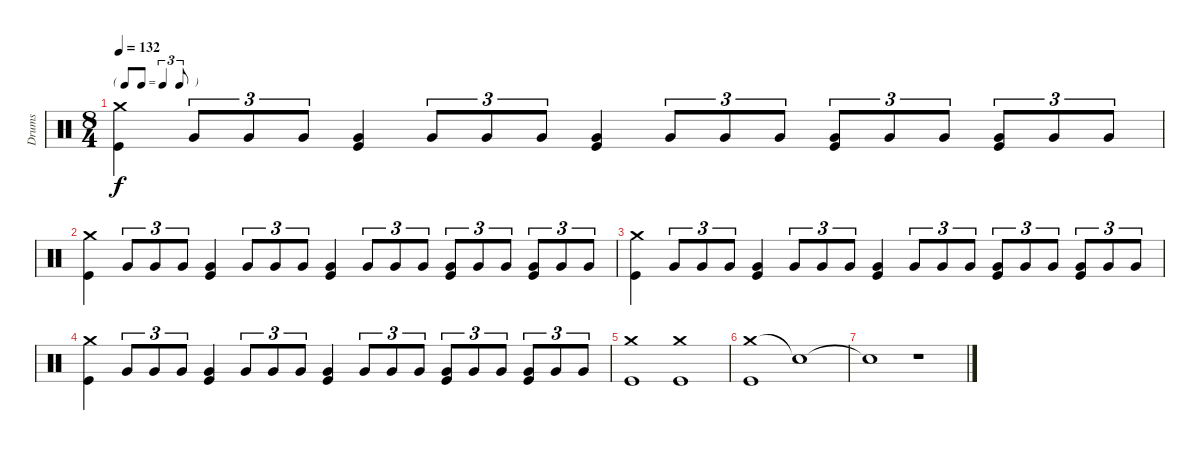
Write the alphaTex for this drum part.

\track ("Drums" "Drums") {instrument percussion}
\staff {score}
\articulation defaults
\ts (8 4)
\tf triplet8th
\tempo 132
\clef neutral
\ks c
("Crash medium (hit)" "Kick (hit)").4{dy f} "Very Low Tom (hit)".8{tu (3 2)} "Very Low Tom (hit)".8{tu (3 2)} "Very Low Tom (hit)".8{tu (3 2)} ("Very Low Tom (hit)" "Kick (hit)").4 "Very Low Tom (hit)".8{tu (3 2)} "Very Low Tom (hit)".8{tu (3 2)} "Very Low Tom (hit)".8{tu (3 2)} ("Very Low Tom (hit)" "Kick (hit)").4 "Very Low Tom (hit)".8{tu (3 2)} "Very Low Tom (hit)".8{tu (3 2)} "Very Low Tom (hit)".8{tu (3 2)} ("Very Low Tom (hit)" "Kick (hit)").8{tu (3 2)} "Very Low Tom (hit)".8{tu (3 2)} "Very Low Tom (hit)".8{tu (3 2)} ("Very Low Tom (hit)" "Kick (hit)").8{tu (3 2)} "Very Low Tom (hit)".8{tu (3 2)} "Very Low Tom (hit)".8{tu (3 2)} |
("Crash medium (hit)" "Kick (hit)").4 "Very Low Tom (hit)".8{tu (3 2)} "Very Low Tom (hit)".8{tu (3 2)} "Very Low Tom (hit)".8{tu (3 2)} ("Very Low Tom (hit)" "Kick (hit)").4 "Very Low Tom (hit)".8{tu (3 2)} "Very Low Tom (hit)".8{tu (3 2)} "Very Low Tom (hit)".8{tu (3 2)} ("Very Low Tom (hit)" "Kick (hit)").4 "Very Low Tom (hit)".8{tu (3 2)} "Very Low Tom (hit)".8{tu (3 2)} "Very Low Tom (hit)".8{tu (3 2)} ("Very Low Tom (hit)" "Kick (hit)").8{tu (3 2)} "Very Low Tom (hit)".8{tu (3 2)} "Very Low Tom (hit)".8{tu (3 2)} ("Very Low Tom (hit)" "Kick (hit)").8{tu (3 2)} "Very Low Tom (hit)".8{tu (3 2)} "Very Low Tom (hit)".8{tu (3 2)} |
("Crash medium (hit)" "Kick (hit)").4 "Very Low Tom (hit)".8{tu (3 2)} "Very Low Tom (hit)".8{tu (3 2)} "Very Low Tom (hit)".8{tu (3 2)} ("Very Low Tom (hit)" "Kick (hit)").4 "Very Low Tom (hit)".8{tu (3 2)} "Very Low Tom (hit)".8{tu (3 2)} "Very Low Tom (hit)".8{tu (3 2)} ("Very Low Tom (hit)" "Kick (hit)").4 "Very Low Tom (hit)".8{tu (3 2)} "Very Low Tom (hit)".8{tu (3 2)} "Very Low Tom (hit)".8{tu (3 2)} ("Very Low Tom (hit)" "Kick (hit)").8{tu (3 2)} "Very Low Tom (hit)".8{tu (3 2)} "Very Low Tom (hit)".8{tu (3 2)} ("Very Low Tom (hit)" "Kick (hit)").8{tu (3 2)} "Very Low Tom (hit)".8{tu (3 2)} "Very Low Tom (hit)".8{tu (3 2)} |
("Crash medium (hit)" "Kick (hit)").4 "Very Low Tom (hit)".8{tu (3 2)} "Very Low Tom (hit)".8{tu (3 2)} "Very Low Tom (hit)".8{tu (3 2)} ("Very Low Tom (hit)" "Kick (hit)").4 "Very Low Tom (hit)".8{tu (3 2)} "Very Low Tom (hit)".8{tu (3 2)} "Very Low Tom (hit)".8{tu (3 2)} ("Very Low Tom (hit)" "Kick (hit)").4 "Very Low Tom (hit)".8{tu (3 2)} "Very Low Tom (hit)".8{tu (3 2)} "Very Low Tom (hit)".8{tu (3 2)} ("Very Low Tom (hit)" "Kick (hit)").8{tu (3 2)} "Very Low Tom (hit)".8{tu (3 2)} "Very Low Tom (hit)".8{tu (3 2)} ("Very Low Tom (hit)" "Kick (hit)").8{tu (3 2)} "Very Low Tom (hit)".8{tu (3 2)} "Very Low Tom (hit)".8{tu (3 2)} |
("Crash medium (hit)" "Kick (hit)").1 ("Crash medium (hit)" "Kick (hit)").1 |
("Crash medium (hit)" "Kick (hit)").1 "Snare (hit)"{t}.1 |
"Snare (hit)"{t}.1 r.1
